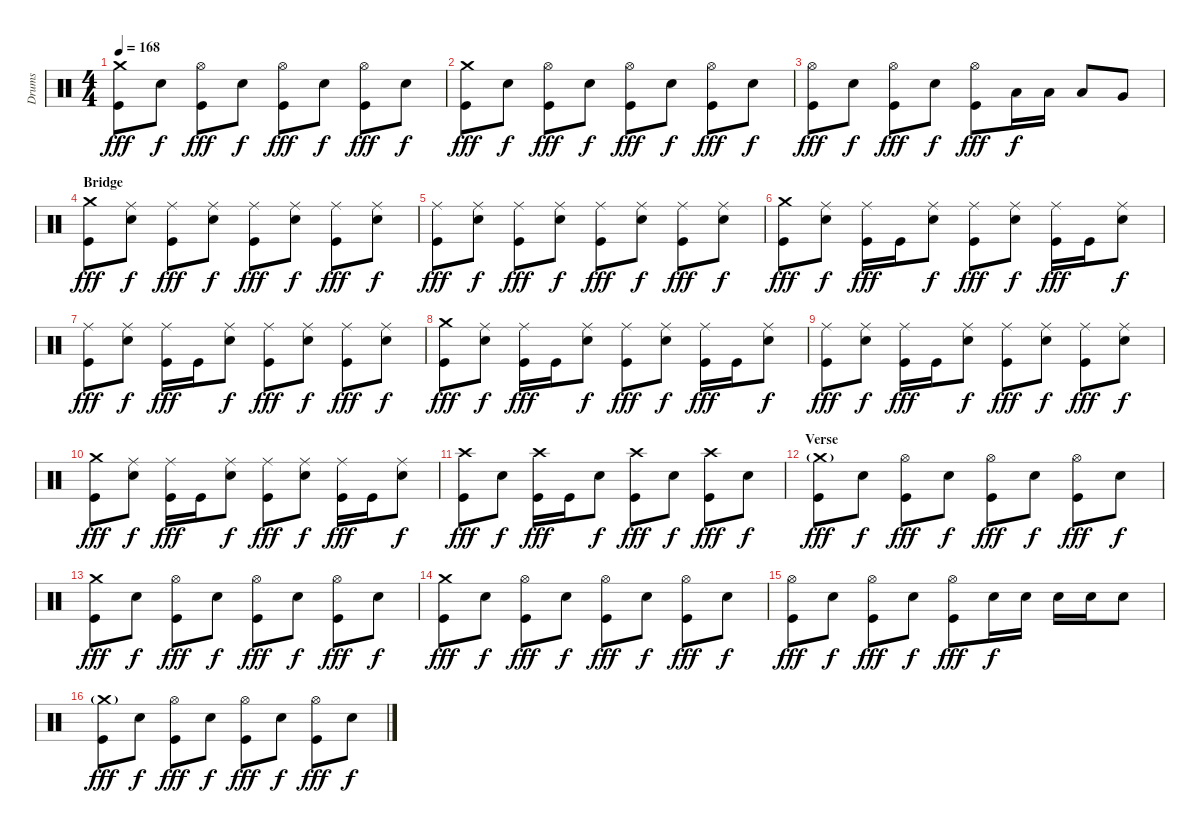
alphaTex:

\track ("Drums" "Drums") {instrument percussion}
\staff {score}
\articulation defaults
\ts (4 4)
\tempo 168
\clef neutral
\ks c
("Crash medium (hit)" "Kick (hit)").8{dy fff} "Snare (hit) 2".8{dy f} ("Hi-Hat (open)" "Kick (hit)").8{dy fff} "Snare (hit) 2".8{dy f} ("Hi-Hat (open)" "Kick (hit)").8{dy fff} "Snare (hit) 2".8{dy f} ("Hi-Hat (open)" "Kick (hit)").8{dy fff} "Snare (hit) 2".8{dy f} |
("Crash medium (hit)" "Kick (hit)").8{dy fff} "Snare (hit) 2".8{dy f} ("Hi-Hat (open)" "Kick (hit)").8{dy fff} "Snare (hit) 2".8{dy f} ("Hi-Hat (open)" "Kick (hit)").8{dy fff} "Snare (hit) 2".8{dy f} ("Hi-Hat (open)" "Kick (hit)").8{dy fff} "Snare (hit) 2".8{dy f} |
("Hi-Hat (open)" "Kick (hit)").8{dy fff} "Snare (hit) 2".8{dy f} ("Hi-Hat (open)" "Kick (hit)").8{dy fff} "Snare (hit) 2".8{dy f} ("Hi-Hat (open)" "Kick (hit)").8{dy fff} "Low Tom (hit)".16{dy f} "Low Tom (hit)".16 "Low Tom (hit)".8 "Very Low Tom (hit)".8 |
\section ("" "Bridge")
("Crash medium (hit)" "Kick (hit)").8{dy fff} ("Ride (middle)" "Snare (hit) 2").8{dy f} ("Ride (middle)" "Kick (hit)").8{dy fff} ("Ride (middle)" "Snare (hit) 2").8{dy f} ("Ride (middle)" "Kick (hit)").8{dy fff} ("Ride (middle)" "Snare (hit) 2").8{dy f} ("Ride (middle)" "Kick (hit)").8{dy fff} ("Ride (middle)" "Snare (hit) 2").8{dy f} |
("Ride (middle)" "Kick (hit)").8{dy fff} ("Ride (middle)" "Snare (hit) 2").8{dy f} ("Ride (middle)" "Kick (hit)").8{dy fff} ("Ride (middle)" "Snare (hit) 2").8{dy f} ("Ride (middle)" "Kick (hit)").8{dy fff} ("Ride (middle)" "Snare (hit) 2").8{dy f} ("Ride (middle)" "Kick (hit)").8{dy fff} ("Ride (middle)" "Snare (hit) 2").8{dy f} |
("Crash medium (hit)" "Kick (hit)").8{dy fff} ("Ride (middle)" "Snare (hit) 2").8{dy f} ("Ride (middle)" "Kick (hit)").16{dy fff} "Kick (hit)".16 ("Ride (middle)" "Snare (hit) 2").8{dy f} ("Ride (middle)" "Kick (hit)").8{dy fff} ("Ride (middle)" "Snare (hit) 2").8{dy f} ("Ride (middle)" "Kick (hit)").16{dy fff} "Kick (hit)".16 ("Ride (middle)" "Snare (hit) 2").8{dy f} |
("Ride (middle)" "Kick (hit)").8{dy fff} ("Ride (middle)" "Snare (hit) 2").8{dy f} ("Ride (middle)" "Kick (hit)").16{dy fff} "Kick (hit)".16 ("Ride (middle)" "Snare (hit) 2").8{dy f} ("Ride (middle)" "Kick (hit)").8{dy fff} ("Ride (middle)" "Snare (hit) 2").8{dy f} ("Ride (middle)" "Kick (hit)").8{dy fff} ("Ride (middle)" "Snare (hit) 2").8{dy f} |
("Crash medium (hit)" "Kick (hit)").8{dy fff} ("Ride (middle)" "Snare (hit) 2").8{dy f} ("Ride (middle)" "Kick (hit)").16{dy fff} "Kick (hit)".16 ("Ride (middle)" "Snare (hit) 2").8{dy f} ("Ride (middle)" "Kick (hit)").8{dy fff} ("Ride (middle)" "Snare (hit) 2").8{dy f} ("Ride (middle)" "Kick (hit)").16{dy fff} "Kick (hit)".16 ("Ride (middle)" "Snare (hit) 2").8{dy f} |
("Ride (middle)" "Kick (hit)").8{dy fff} ("Ride (middle)" "Snare (hit) 2").8{dy f} ("Ride (middle)" "Kick (hit)").16{dy fff} "Kick (hit)".16 ("Ride (middle)" "Snare (hit) 2").8{dy f} ("Ride (middle)" "Kick (hit)").8{dy fff} ("Ride (middle)" "Snare (hit) 2").8{dy f} ("Ride (middle)" "Kick (hit)").8{dy fff} ("Ride (middle)" "Snare (hit) 2").8{dy f} |
("Crash medium (hit)" "Kick (hit)").8{dy fff} ("Ride (middle)" "Snare (hit) 2").8{dy f} ("Ride (middle)" "Kick (hit)").16{dy fff} "Kick (hit)".16 ("Ride (middle)" "Snare (hit) 2").8{dy f} ("Ride (middle)" "Kick (hit)").8{dy fff} ("Ride (middle)" "Snare (hit) 2").8{dy f} ("Ride (middle)" "Kick (hit)").16{dy fff} "Kick (hit)".16 ("Ride (middle)" "Snare (hit) 2").8{dy f} |
("Crash high (hit)" "Kick (hit)").8{dy fff} "Snare (hit) 2".8{dy f} ("Crash high (hit)" "Kick (hit)").16{dy fff} "Kick (hit)".16 "Snare (hit) 2".8{dy f} ("Crash high (hit)" "Kick (hit)").8{dy fff} "Snare (hit) 2".8{dy f} ("Crash high (hit)" "Kick (hit)").8{dy fff} "Snare (hit) 2".8{dy f} |
\section ("" "Verse")
("Crash medium (hit)"{g} "Kick (hit)").8{dy fff} "Snare (hit) 2".8{dy f} ("Hi-Hat (open)" "Kick (hit)").8{dy fff} "Snare (hit) 2".8{dy f} ("Hi-Hat (open)" "Kick (hit)").8{dy fff} "Snare (hit) 2".8{dy f} ("Hi-Hat (open)" "Kick (hit)").8{dy fff} "Snare (hit) 2".8{dy f} |
("Crash medium (hit)" "Kick (hit)").8{dy fff} "Snare (hit) 2".8{dy f} ("Hi-Hat (open)" "Kick (hit)").8{dy fff} "Snare (hit) 2".8{dy f} ("Hi-Hat (open)" "Kick (hit)").8{dy fff} "Snare (hit) 2".8{dy f} ("Hi-Hat (open)" "Kick (hit)").8{dy fff} "Snare (hit) 2".8{dy f} |
("Crash medium (hit)" "Kick (hit)").8{dy fff} "Snare (hit) 2".8{dy f} ("Hi-Hat (open)" "Kick (hit)").8{dy fff} "Snare (hit) 2".8{dy f} ("Hi-Hat (open)" "Kick (hit)").8{dy fff} "Snare (hit) 2".8{dy f} ("Hi-Hat (open)" "Kick (hit)").8{dy fff} "Snare (hit) 2".8{dy f} |
("Hi-Hat (open)" "Kick (hit)").8{dy fff} "Snare (hit) 2".8{dy f} ("Hi-Hat (open)" "Kick (hit)").8{dy fff} "Snare (hit) 2".8{dy f} ("Hi-Hat (open)" "Kick (hit)").8{dy fff} "Snare (hit) 2".16{dy f} "Snare (hit) 2".16 "Snare (hit) 2".16 "Snare (hit) 2".16 "Snare (hit) 2".8 |
("Crash medium (hit)"{g} "Kick (hit)").8{dy fff} "Snare (hit) 2".8{dy f} ("Hi-Hat (open)" "Kick (hit)").8{dy fff} "Snare (hit) 2".8{dy f} ("Hi-Hat (open)" "Kick (hit)").8{dy fff} "Snare (hit) 2".8{dy f} ("Hi-Hat (open)" "Kick (hit)").8{dy fff} "Snare (hit) 2".8{dy f}
